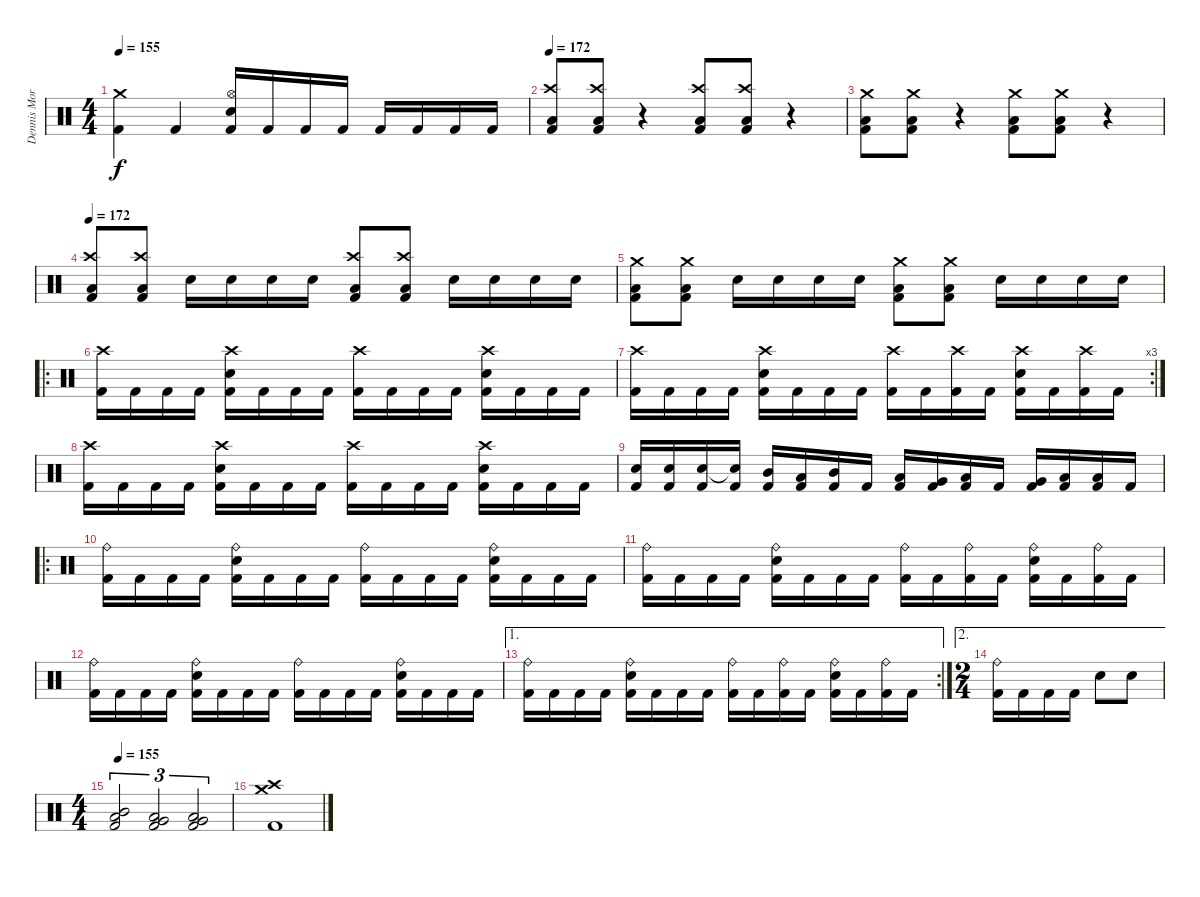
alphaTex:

\track ("Dennis Morgan" "Dennis Mor") {instrument percussion}
\staff {score}
\articulation defaults
\ts (4 4)
\tempo 155
\clef neutral
\ks c
("Crash medium (hit)" "Kick (hit) 2").4{dy f} "Kick (hit) 2".4 ("Hi-Hat (open)" "Electric Snare (hit)" "Kick (hit) 2").16 "Kick (hit) 2".16 "Kick (hit) 2".16 "Kick (hit) 2".16 "Kick (hit) 2".16 "Kick (hit) 2".16 "Kick (hit) 2".16 "Kick (hit) 2".16 |
\tempo 172
("Crash high (hit)" "Low Floor Tom (hit)" "Kick (hit) 2").8 ("Crash high (hit)" "Low Floor Tom (hit)" "Kick (hit) 2").8 r.4 ("Crash high (hit)" "Low Floor Tom (hit)" "Kick (hit) 2").8 ("Crash high (hit)" "Low Floor Tom (hit)" "Kick (hit) 2").8 r.4 |
("Crash medium (hit)" "Low Floor Tom (hit)" "Kick (hit) 2").8 ("Crash medium (hit)" "Low Floor Tom (hit)" "Kick (hit) 2").8 r.4 ("Crash medium (hit)" "Low Floor Tom (hit)" "Kick (hit) 2").8 ("Crash medium (hit)" "Low Floor Tom (hit)" "Kick (hit) 2").8 r.4 |
\tempo 172
("Crash high (hit)" "Low Floor Tom (hit)" "Kick (hit) 2").8 ("Crash high (hit)" "Low Floor Tom (hit)" "Kick (hit) 2").8 "Electric Snare (hit)".16 "Electric Snare (hit)".16 "Electric Snare (hit)".16 "Electric Snare (hit)".16 ("Crash high (hit)" "Low Floor Tom (hit)" "Kick (hit) 2").8 ("Crash high (hit)" "Low Floor Tom (hit)" "Kick (hit) 2").8 "Electric Snare (hit)".16 "Electric Snare (hit)".16 "Electric Snare (hit)".16 "Electric Snare (hit)".16 |
("Crash medium (hit)" "Low Floor Tom (hit)" "Kick (hit) 2").8 ("Crash medium (hit)" "Low Floor Tom (hit)" "Kick (hit) 2").8 "Electric Snare (hit)".16 "Electric Snare (hit)".16 "Electric Snare (hit)".16 "Electric Snare (hit)".16 ("Crash medium (hit)" "Low Floor Tom (hit)" "Kick (hit) 2").8 ("Crash medium (hit)" "Low Floor Tom (hit)" "Kick (hit) 2").8 "Electric Snare (hit)".16 "Electric Snare (hit)".16 "Electric Snare (hit)".16 "Electric Snare (hit)".16 |
\ro
("Crash high (hit)" "Kick (hit) 2").16 "Kick (hit) 2".16 "Kick (hit) 2".16 "Kick (hit) 2".16 ("Crash high (hit)" "Electric Snare (hit)" "Kick (hit) 2").16 "Kick (hit) 2".16 "Kick (hit) 2".16 "Kick (hit) 2".16 ("Crash high (hit)" "Kick (hit) 2").16 "Kick (hit) 2".16 "Kick (hit) 2".16 "Kick (hit) 2".16 ("Crash high (hit)" "Electric Snare (hit)" "Kick (hit) 2").16 "Kick (hit) 2".16 "Kick (hit) 2".16 "Kick (hit) 2".16 |
\rc 3
("Crash high (hit)" "Kick (hit) 2").16 "Kick (hit) 2".16 "Kick (hit) 2".16 "Kick (hit) 2".16 ("Crash high (hit)" "Electric Snare (hit)" "Kick (hit) 2").16 "Kick (hit) 2".16 "Kick (hit) 2".16 "Kick (hit) 2".16 ("Crash high (hit)" "Kick (hit) 2").16 "Kick (hit) 2".16 ("Crash high (hit)" "Kick (hit) 2").16 "Kick (hit) 2".16 ("Crash high (hit)" "Electric Snare (hit)" "Kick (hit) 2").16 "Kick (hit) 2".16 ("Crash high (hit)" "Kick (hit) 2").16 "Kick (hit) 2".16 |
("Crash high (hit)" "Kick (hit) 2").16 "Kick (hit) 2".16 "Kick (hit) 2".16 "Kick (hit) 2".16 ("Crash high (hit)" "Electric Snare (hit)" "Kick (hit) 2").16 "Kick (hit) 2".16 "Kick (hit) 2".16 "Kick (hit) 2".16 ("Crash high (hit)" "Kick (hit) 2").16 "Kick (hit) 2".16 "Kick (hit) 2".16 "Kick (hit) 2".16 ("Crash high (hit)" "Electric Snare (hit)" "Kick (hit) 2").16 "Kick (hit) 2".16 "Kick (hit) 2".16 "Kick (hit) 2".16 |
("Electric Snare (hit)" "Kick (hit) 2").16 ("Electric Snare (hit)" "Kick (hit) 2").16 ("Electric Snare (hit)" "Kick (hit) 2").16 ("Snare (hit)"{t} "Kick (hit) 2").16 ("Mid Tom (hit)" "Kick (hit) 2").16 ("Low Tom (hit)" "Kick (hit) 2").16 ("Mid Tom (hit)" "Kick (hit) 2").16 "Kick (hit) 2".16 ("Low Tom (hit)" "Kick (hit) 2").16 ("Very Low Tom (hit)" "Kick (hit) 2").16 ("Low Tom (hit)" "Kick (hit) 2").16 "Kick (hit) 2".16 ("Very Low Tom (hit)" "Kick (hit) 2").16 ("Low Floor Tom (hit)" "Kick (hit) 2").16 ("Low Floor Tom (hit)" "Kick (hit) 2").16 "Kick (hit) 2".16 |
\ro
("Ride (bell)" "Kick (hit) 2").16 "Kick (hit) 2".16 "Kick (hit) 2".16 "Kick (hit) 2".16 ("Ride (bell)" "Electric Snare (hit)" "Kick (hit) 2").16 "Kick (hit) 2".16 "Kick (hit) 2".16 "Kick (hit) 2".16 ("Ride (bell)" "Kick (hit) 2").16 "Kick (hit) 2".16 "Kick (hit) 2".16 "Kick (hit) 2".16 ("Ride (bell)" "Electric Snare (hit)" "Kick (hit) 2").16 "Kick (hit) 2".16 "Kick (hit) 2".16 "Kick (hit) 2".16 |
("Ride (bell)" "Kick (hit) 2").16 "Kick (hit) 2".16 "Kick (hit) 2".16 "Kick (hit) 2".16 ("Ride (bell)" "Electric Snare (hit)" "Kick (hit) 2").16 "Kick (hit) 2".16 "Kick (hit) 2".16 "Kick (hit) 2".16 ("Ride (bell)" "Kick (hit) 2").16 "Kick (hit) 2".16 ("Ride (bell)" "Kick (hit) 2").16 "Kick (hit) 2".16 ("Ride (bell)" "Electric Snare (hit)" "Kick (hit) 2").16 "Kick (hit) 2".16 ("Ride (bell)" "Kick (hit) 2").16 "Kick (hit) 2".16 |
("Ride (bell)" "Kick (hit) 2").16 "Kick (hit) 2".16 "Kick (hit) 2".16 "Kick (hit) 2".16 ("Ride (bell)" "Electric Snare (hit)" "Kick (hit) 2").16 "Kick (hit) 2".16 "Kick (hit) 2".16 "Kick (hit) 2".16 ("Ride (bell)" "Kick (hit) 2").16 "Kick (hit) 2".16 "Kick (hit) 2".16 "Kick (hit) 2".16 ("Ride (bell)" "Electric Snare (hit)" "Kick (hit) 2").16 "Kick (hit) 2".16 "Kick (hit) 2".16 "Kick (hit) 2".16 |
\ae 1
\rc 2
("Ride (bell)" "Kick (hit) 2").16 "Kick (hit) 2".16 "Kick (hit) 2".16 "Kick (hit) 2".16 ("Ride (bell)" "Electric Snare (hit)" "Kick (hit) 2").16 "Kick (hit) 2".16 "Kick (hit) 2".16 "Kick (hit) 2".16 ("Ride (bell)" "Kick (hit) 2").16 "Kick (hit) 2".16 ("Ride (bell)" "Kick (hit) 2").16 "Kick (hit) 2".16 ("Ride (bell)" "Electric Snare (hit)" "Kick (hit) 2").16 "Kick (hit) 2".16 ("Ride (bell)" "Kick (hit) 2").16 "Kick (hit) 2".16 |
\ae 2
\ts (2 4)
("Ride (bell)" "Kick (hit) 2").16 "Kick (hit) 2".16 "Kick (hit) 2".16 "Kick (hit) 2".16 "Electric Snare (hit)".8 "Electric Snare (hit)".8 |
\ts (4 4)
\tempo 155
("Mid Tom (hit)" "Low Tom (hit)" "Kick (hit) 2").2{tu (3 2)} ("Low Tom (hit)" "Very Low Tom (hit)" "Kick (hit) 2").2{tu (3 2)} ("Very Low Tom (hit)" "Low Floor Tom (hit)" "Kick (hit) 2").2{tu (3 2)} |
("Crash high (hit)" "Crash medium (hit)" "Kick (hit) 2").1
